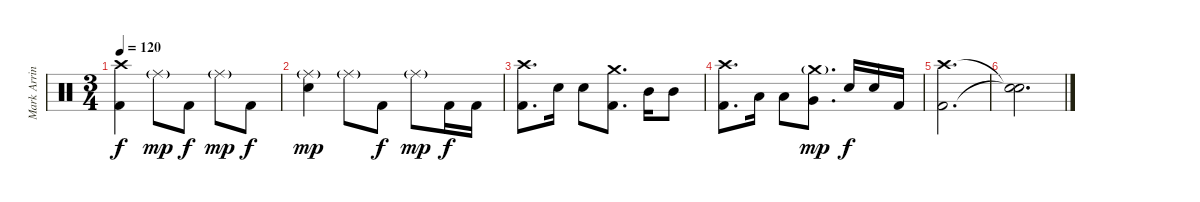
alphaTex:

\track ("Mark Arrington Drums" "Mark Arrin") {instrument percussion}
\staff {score}
\articulation defaults
\ts (3 4)
\tempo 120
\clef neutral
\ks c
("Crash high (hit)" "Kick (hit) 2").4{dy f} "Ride (middle)"{g}.8{dy mp} "Kick (hit) 2".8{dy f} "Ride (middle)"{g}.8{dy mp} "Kick (hit) 2".8{dy f} |
("Ride (middle)"{g} "Electric Snare (hit)").4{dy mp} "Ride (middle)"{g}.8 "Kick (hit) 2".8{dy f} "Ride (middle)"{g}.8{dy mp} "Kick (hit) 2".16{dy f} "Kick (hit) 2".16 |
("Crash high (hit)" "Kick (hit) 2").8{d} "Electric Snare (hit)".16 "Electric Snare (hit)".8 ("Crash medium (hit)" "Kick (hit) 2").8{d} "Mid Tom (hit)".16 "Mid Tom (hit)".8 |
("Crash high (hit)" "Kick (hit) 2").8{d} "Low Tom (hit)".16 "Low Tom (hit)".8 ("Crash medium (hit)"{g} "Very Low Tom (hit)").8{d dy mp} "Electric Snare (hit)".16{dy f} "Electric Snare (hit)".16 "Kick (hit) 2".16 |
("Crash high (hit)" "Kick (hit) 2").2{d} |
("Snare (hit)"{t} "Snare (hit)"{t}).2{d}
